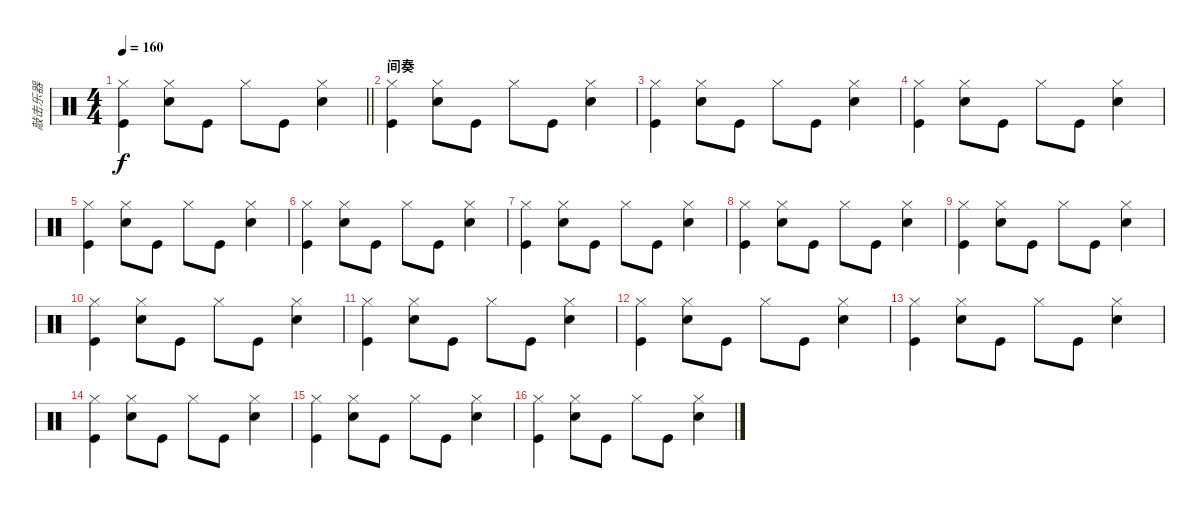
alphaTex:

\track ("敲击乐器" "敲击乐器") {instrument percussion}
\staff {score}
\articulation defaults
\ts (4 4)
\tempo 160
\clef neutral
\barLineRight lightlight
\ks c
("Kick (hit)" "Hi-Hat (closed)").4{dy f} ("Hi-Hat (closed)" "Snare (hit) 2").8 "Kick (hit)".8 "Hi-Hat (closed)".8 "Kick (hit)".8 ("Hi-Hat (closed)" "Snare (hit) 2").4 |
\section ("" "间奏")
("Kick (hit)" "Hi-Hat (closed)").4 ("Hi-Hat (closed)" "Snare (hit) 2").8 "Kick (hit)".8 "Hi-Hat (closed)".8 "Kick (hit)".8 ("Hi-Hat (closed)" "Snare (hit) 2").4 |
("Kick (hit)" "Hi-Hat (closed)").4 ("Hi-Hat (closed)" "Snare (hit) 2").8 "Kick (hit)".8 "Hi-Hat (closed)".8 "Kick (hit)".8 ("Hi-Hat (closed)" "Snare (hit) 2").4 |
("Kick (hit)" "Hi-Hat (closed)").4 ("Hi-Hat (closed)" "Snare (hit) 2").8 "Kick (hit)".8 "Hi-Hat (closed)".8 "Kick (hit)".8 ("Hi-Hat (closed)" "Snare (hit) 2").4 |
("Kick (hit)" "Hi-Hat (closed)").4 ("Hi-Hat (closed)" "Snare (hit) 2").8 "Kick (hit)".8 "Hi-Hat (closed)".8 "Kick (hit)".8 ("Hi-Hat (closed)" "Snare (hit) 2").4 |
("Kick (hit)" "Hi-Hat (closed)").4 ("Hi-Hat (closed)" "Snare (hit) 2").8 "Kick (hit)".8 "Hi-Hat (closed)".8 "Kick (hit)".8 ("Hi-Hat (closed)" "Snare (hit) 2").4 |
("Kick (hit)" "Hi-Hat (closed)").4 ("Hi-Hat (closed)" "Snare (hit) 2").8 "Kick (hit)".8 "Hi-Hat (closed)".8 "Kick (hit)".8 ("Hi-Hat (closed)" "Snare (hit) 2").4 |
("Kick (hit)" "Hi-Hat (closed)").4 ("Hi-Hat (closed)" "Snare (hit) 2").8 "Kick (hit)".8 "Hi-Hat (closed)".8 "Kick (hit)".8 ("Hi-Hat (closed)" "Snare (hit) 2").4 |
("Kick (hit)" "Hi-Hat (closed)").4 ("Hi-Hat (closed)" "Snare (hit) 2").8 "Kick (hit)".8 "Hi-Hat (closed)".8 "Kick (hit)".8 ("Hi-Hat (closed)" "Snare (hit) 2").4 |
("Kick (hit)" "Hi-Hat (closed)").4 ("Hi-Hat (closed)" "Snare (hit) 2").8 "Kick (hit)".8 "Hi-Hat (closed)".8 "Kick (hit)".8 ("Hi-Hat (closed)" "Snare (hit) 2").4 |
("Kick (hit)" "Hi-Hat (closed)").4 ("Hi-Hat (closed)" "Snare (hit) 2").8 "Kick (hit)".8 "Hi-Hat (closed)".8 "Kick (hit)".8 ("Hi-Hat (closed)" "Snare (hit) 2").4 |
("Kick (hit)" "Hi-Hat (closed)").4 ("Hi-Hat (closed)" "Snare (hit) 2").8 "Kick (hit)".8 "Hi-Hat (closed)".8 "Kick (hit)".8 ("Hi-Hat (closed)" "Snare (hit) 2").4 |
("Kick (hit)" "Hi-Hat (closed)").4 ("Hi-Hat (closed)" "Snare (hit) 2").8 "Kick (hit)".8 "Hi-Hat (closed)".8 "Kick (hit)".8 ("Hi-Hat (closed)" "Snare (hit) 2").4 |
("Kick (hit)" "Hi-Hat (closed)").4 ("Hi-Hat (closed)" "Snare (hit) 2").8 "Kick (hit)".8 "Hi-Hat (closed)".8 "Kick (hit)".8 ("Hi-Hat (closed)" "Snare (hit) 2").4 |
("Kick (hit)" "Hi-Hat (closed)").4 ("Hi-Hat (closed)" "Snare (hit) 2").8 "Kick (hit)".8 "Hi-Hat (closed)".8 "Kick (hit)".8 ("Hi-Hat (closed)" "Snare (hit) 2").4 |
("Kick (hit)" "Hi-Hat (closed)").4 ("Hi-Hat (closed)" "Snare (hit) 2").8 "Kick (hit)".8 "Hi-Hat (closed)".8 "Kick (hit)".8 ("Hi-Hat (closed)" "Snare (hit) 2").4
